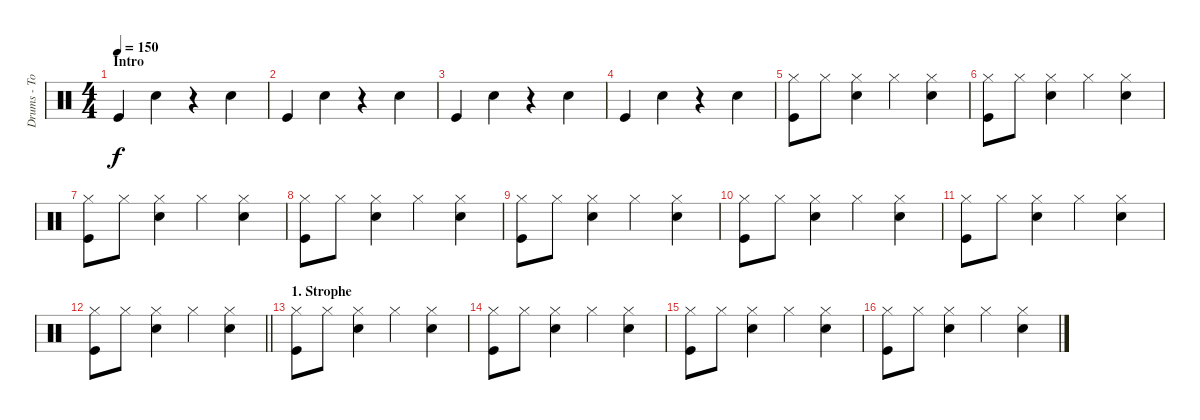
\track ("Drums - Tobi Häuser" "Drums - To") {instrument percussion}
\staff {score}
\articulation defaults
\ts (4 4)
\section ("" "Intro")
\tempo 150
\clef neutral
\ks c "Kick (hit)".4{dy f} "Snare (hit) 2".4
r.4 "Snare (hit) 2".4 |
"Kick (hit)".4 "Snare (hit) 2".4 r.4 "Snare (hit) 2".4 |
"Kick (hit)".4 "Snare (hit) 2".4 r.4 "Snare (hit) 2".4 |
"Kick (hit)".4 "Snare (hit) 2".4 r.4 "Snare (hit) 2".4 |
("Hi-Hat (closed)" "Kick (hit)").8 "Hi-Hat (closed)".8 ("Hi-Hat (closed)" "Snare (hit) 2").4 "Hi-Hat (closed)".4 ("Hi-Hat (closed)" "Snare (hit) 2").4 |
("Hi-Hat (closed)" "Kick (hit)").8 "Hi-Hat (closed)".8 ("Hi-Hat (closed)" "Snare (hit) 2").4 "Hi-Hat (closed)".4 ("Hi-Hat (closed)" "Snare (hit) 2").4 |
("Hi-Hat (closed)" "Kick (hit)").8 "Hi-Hat (closed)".8 ("Hi-Hat (closed)" "Snare (hit) 2").4 "Hi-Hat (closed)".4 ("Hi-Hat (closed)" "Snare (hit) 2").4 |
("Hi-Hat (closed)" "Kick (hit)").8 "Hi-Hat (closed)".8 ("Hi-Hat (closed)" "Snare (hit) 2").4 "Hi-Hat (closed)".4 ("Hi-Hat (closed)" "Snare (hit) 2").4 |
("Hi-Hat (closed)" "Kick (hit)").8 "Hi-Hat (closed)".8 ("Hi-Hat (closed)" "Snare (hit) 2").4 "Hi-Hat (closed)".4 ("Hi-Hat (closed)" "Snare (hit) 2").4 |
("Hi-Hat (closed)" "Kick (hit)").8 "Hi-Hat (closed)".8 ("Hi-Hat (closed)" "Snare (hit) 2").4 "Hi-Hat (closed)".4 ("Hi-Hat (closed)" "Snare (hit) 2").4 |
("Hi-Hat (closed)" "Kick (hit)").8 "Hi-Hat (closed)".8 ("Hi-Hat (closed)" "Snare (hit) 2").4 "Hi-Hat (closed)".4 ("Hi-Hat (closed)" "Snare (hit) 2").4 |
\barLineRight lightlight
("Hi-Hat (closed)" "Kick (hit)").8 "Hi-Hat (closed)".8 ("Hi-Hat (closed)" "Snare (hit) 2").4 "Hi-Hat (closed)".4 ("Hi-Hat (closed)" "Snare (hit) 2").4 |
\section ("" "1. Strophe")
("Hi-Hat (closed)" "Kick (hit)").8 "Hi-Hat (closed)".8 ("Hi-Hat (closed)" "Snare (hit) 2").4 "Hi-Hat (closed)".4 ("Hi-Hat (closed)" "Snare (hit) 2").4 |
("Hi-Hat (closed)" "Kick (hit)").8 "Hi-Hat (closed)".8 ("Hi-Hat (closed)" "Snare (hit) 2").4 "Hi-Hat (closed)".4 ("Hi-Hat (closed)" "Snare (hit) 2").4 |
("Hi-Hat (closed)" "Kick (hit)").8 "Hi-Hat (closed)".8 ("Hi-Hat (closed)" "Snare (hit) 2").4 "Hi-Hat (closed)".4 ("Hi-Hat (closed)" "Snare (hit) 2").4 |
("Hi-Hat (closed)" "Kick (hit)").8 "Hi-Hat (closed)".8 ("Hi-Hat (closed)" "Snare (hit) 2").4 "Hi-Hat (closed)".4 ("Hi-Hat (closed)" "Snare (hit) 2").4
